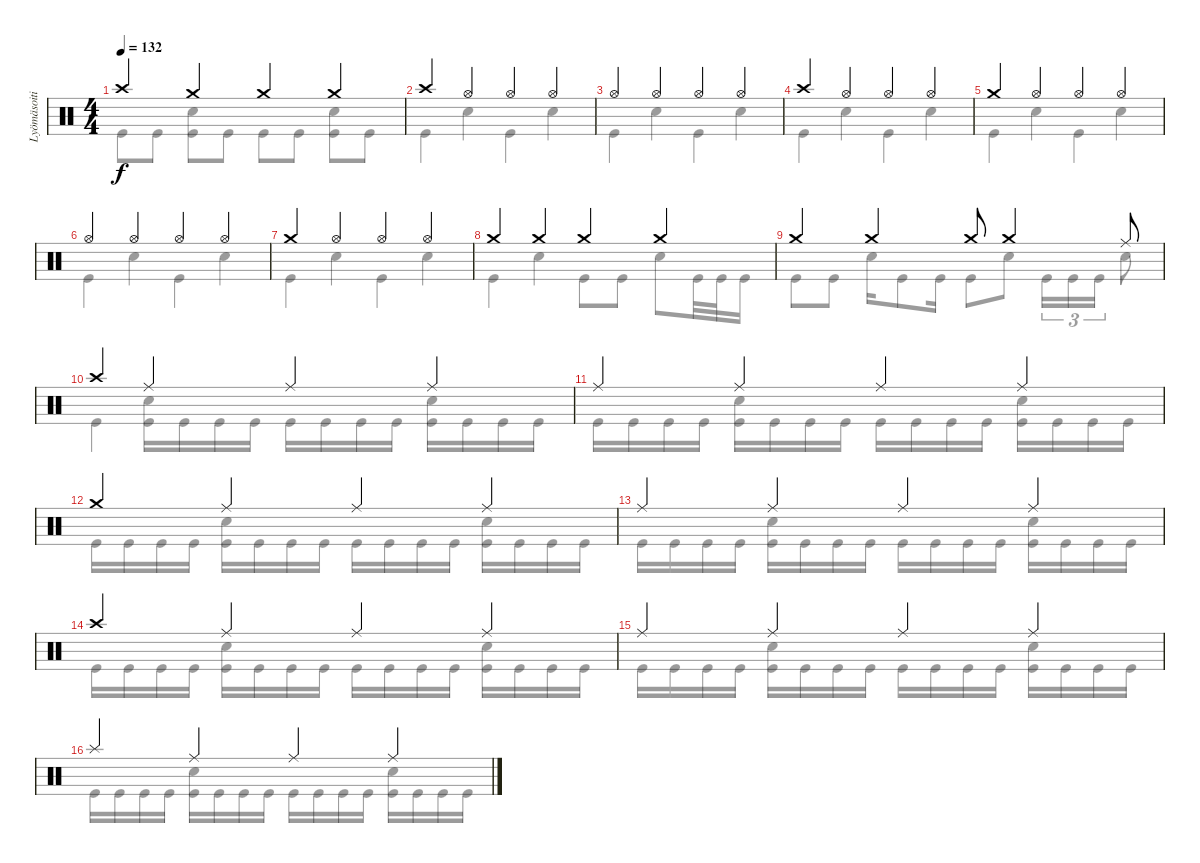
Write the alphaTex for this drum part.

\track ("Lyömäsoitin" "Lyömäsoiti") {instrument percussion}
\staff {score}
\articulation defaults
\voice
\ts (4 4)
\tempo 132
\clef neutral
\ks c "Crash high (hit)".4{dy f} "Crash medium (hit)".4 "Crash medium (hit)".4 "Crash medium (hit)".4
|
"Crash high (hit)".4 "Hi-Hat (open)".4 "Hi-Hat (open)".4 "Hi-Hat (open)".4 |
"Hi-Hat (open)".4 "Hi-Hat (open)".4 "Hi-Hat (open)".4 "Hi-Hat (open)".4 |
"Crash high (hit)".4 "Hi-Hat (open)".4 "Hi-Hat (open)".4 "Hi-Hat (open)".4 |
"Crash medium (hit)".4 "Hi-Hat (open)".4 "Hi-Hat (open)".4 "Hi-Hat (open)".4 |
"Hi-Hat (open)".4 "Hi-Hat (open)".4 "Hi-Hat (open)".4 "Hi-Hat (open)".4 |
"Crash medium (hit)".4 "Hi-Hat (open)".4 "Hi-Hat (open)".4 "Hi-Hat (open)".4 |
"Crash medium (hit)".4 "Crash medium (hit)".4 "Crash medium (hit)".4 "Crash medium (hit)".4 |
"Crash medium (hit)".4 "Crash medium (hit)".4 "Crash medium (hit)".8 "Crash medium (hit)".4 "Ride (middle)".8 |
"Crash high (hit)".4 "Ride (middle)".4 "Ride (middle)".4 "Ride (middle)".4 |
"Ride (middle)".4 "Ride (middle)".4 "Ride (middle)".4 "Ride (middle)".4 |
"Crash medium (hit)".4 "Ride (middle)".4 "Ride (middle)".4 "Ride (middle)".4 |
"Ride (middle)".4 "Ride (middle)".4 "Ride (middle)".4 "Ride (middle)".4 |
"Crash high (hit)".4 "Ride (middle)".4 "Ride (middle)".4 "Ride (middle)".4 |
"Ride (middle)".4 "Ride (middle)".4 "Ride (middle)".4 "Ride (middle)".4 |
"Splash (hit)".4 "Ride (middle)".4 "Ride (middle)".4 "Ride (middle)".4
\voice
\clef neutral
\ottava regular
\simile none
\ks c "Kick (hit)".8{dy f} "Kick (hit)".8
("Electric Snare (hit)" "Kick (hit)").8 "Kick (hit)".8 "Kick (hit)".8 "Kick (hit)".8 ("Electric Snare (hit)" "Kick (hit)").8 "Kick (hit)".8 |
"Kick (hit)".4 "Electric Snare (hit)".4 "Kick (hit)".4 "Electric Snare (hit)".4 |
"Kick (hit)".4 "Electric Snare (hit)".4 "Kick (hit)".4 "Electric Snare (hit)".4 |
"Kick (hit)".4 "Electric Snare (hit)".4 "Kick (hit)".4 "Electric Snare (hit)".4 |
"Kick (hit)".4 "Electric Snare (hit)".4 "Kick (hit)".4 "Electric Snare (hit)".4 |
"Kick (hit)".4 "Electric Snare (hit)".4 "Kick (hit)".4 "Electric Snare (hit)".4 |
"Kick (hit)".4 "Electric Snare (hit)".4 "Kick (hit)".4 "Electric Snare (hit)".4 |
"Kick (hit)".4 "Electric Snare (hit)".4 "Kick (hit)".8 "Kick (hit)".8 "Electric Snare (hit)".8 "Kick (hit)".32 "Kick (hit)".32 "Kick (hit)".16 |
"Kick (hit)".8 "Kick (hit)".8 "Electric Snare (hit)".16 "Kick (hit)".8 "Kick (hit)".16 "Kick (hit)".8 "Electric Snare (hit)".8 "Kick (hit)".16{tu (3 2)} "Kick (hit)".16{tu (3 2)} "Kick (hit)".16{tu (3 2)} "Electric Snare (hit)".8 |
"Kick (hit)".4 ("Electric Snare (hit)" "Kick (hit)").16 "Kick (hit)".16 "Kick (hit)".16 "Kick (hit)".16 "Kick (hit)".16 "Kick (hit)".16 "Kick (hit)".16 "Kick (hit)".16 ("Electric Snare (hit)" "Kick (hit)").16 "Kick (hit)".16 "Kick (hit)".16 "Kick (hit)".16 |
"Kick (hit)".16 "Kick (hit)".16 "Kick (hit)".16 "Kick (hit)".16 ("Electric Snare (hit)" "Kick (hit)").16 "Kick (hit)".16 "Kick (hit)".16 "Kick (hit)".16 "Kick (hit)".16 "Kick (hit)".16 "Kick (hit)".16 "Kick (hit)".16 ("Electric Snare (hit)" "Kick (hit)").16 "Kick (hit)".16 "Kick (hit)".16 "Kick (hit)".16 |
"Kick (hit)".16 "Kick (hit)".16 "Kick (hit)".16 "Kick (hit)".16 ("Electric Snare (hit)" "Kick (hit)").16 "Kick (hit)".16 "Kick (hit)".16 "Kick (hit)".16 "Kick (hit)".16 "Kick (hit)".16 "Kick (hit)".16 "Kick (hit)".16 ("Electric Snare (hit)" "Kick (hit)").16 "Kick (hit)".16 "Kick (hit)".16 "Kick (hit)".16 |
"Kick (hit)".16 "Kick (hit)".16 "Kick (hit)".16 "Kick (hit)".16 ("Electric Snare (hit)" "Kick (hit)").16 "Kick (hit)".16 "Kick (hit)".16 "Kick (hit)".16 "Kick (hit)".16 "Kick (hit)".16 "Kick (hit)".16 "Kick (hit)".16 ("Electric Snare (hit)" "Kick (hit)").16 "Kick (hit)".16 "Kick (hit)".16 "Kick (hit)".16 |
"Kick (hit)".16 "Kick (hit)".16 "Kick (hit)".16 "Kick (hit)".16 ("Electric Snare (hit)" "Kick (hit)").16 "Kick (hit)".16 "Kick (hit)".16 "Kick (hit)".16 "Kick (hit)".16 "Kick (hit)".16 "Kick (hit)".16 "Kick (hit)".16 ("Electric Snare (hit)" "Kick (hit)").16 "Kick (hit)".16 "Kick (hit)".16 "Kick (hit)".16 |
"Kick (hit)".16 "Kick (hit)".16 "Kick (hit)".16 "Kick (hit)".16 ("Electric Snare (hit)" "Kick (hit)").16 "Kick (hit)".16 "Kick (hit)".16 "Kick (hit)".16 "Kick (hit)".16 "Kick (hit)".16 "Kick (hit)".16 "Kick (hit)".16 ("Electric Snare (hit)" "Kick (hit)").16 "Kick (hit)".16 "Kick (hit)".16 "Kick (hit)".16 |
"Kick (hit)".16 "Kick (hit)".16 "Kick (hit)".16 "Kick (hit)".16 ("Electric Snare (hit)" "Kick (hit)").16 "Kick (hit)".16 "Kick (hit)".16 "Kick (hit)".16 "Kick (hit)".16 "Kick (hit)".16 "Kick (hit)".16 "Kick (hit)".16 ("Electric Snare (hit)" "Kick (hit)").16 "Kick (hit)".16 "Kick (hit)".16 "Kick (hit)".16
